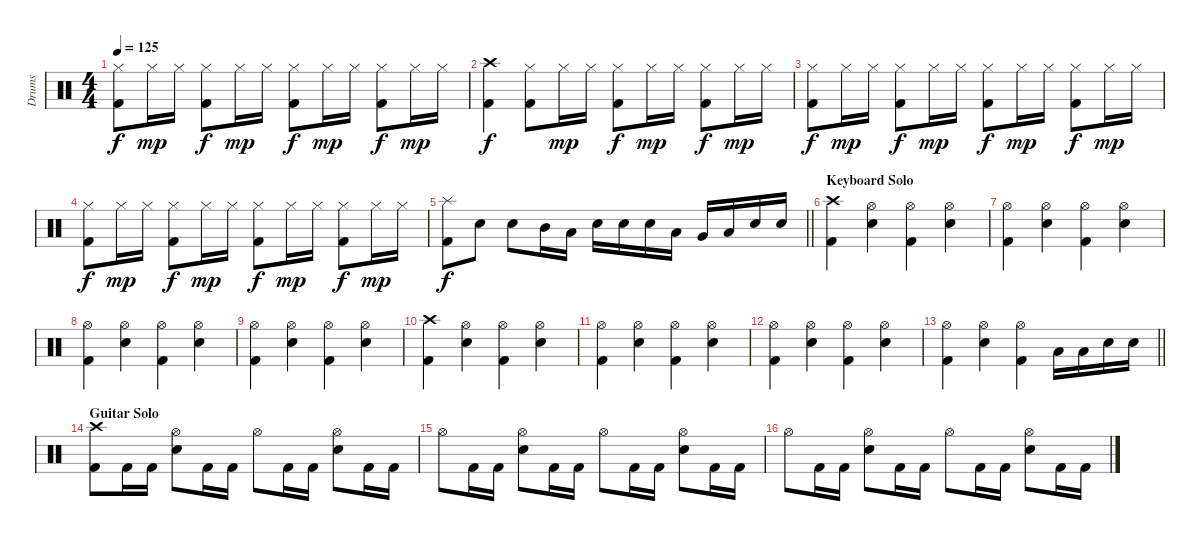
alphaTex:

\track ("Drums" "Drums") {instrument percussion}
\staff {score}
\articulation defaults
\ts (4 4)
\tempo 125
\clef neutral
\ks c
("Kick (hit) 2" "Hi-Hat (closed)").8{dy f} "Hi-Hat (closed)".16{dy mp} "Hi-Hat (closed)".16 ("Kick (hit) 2" "Hi-Hat (closed)").8{dy f} "Hi-Hat (closed)".16{dy mp} "Hi-Hat (closed)".16 ("Kick (hit) 2" "Hi-Hat (closed)").8{dy f} "Hi-Hat (closed)".16{dy mp} "Hi-Hat (closed)".16 ("Kick (hit) 2" "Hi-Hat (closed)").8{dy f} "Hi-Hat (closed)".16{dy mp} "Hi-Hat (closed)".16 |
("Kick (hit) 2" "Crash high (hit)").4{dy f} ("Kick (hit) 2" "Hi-Hat (closed)").8 "Hi-Hat (closed)".16{dy mp} "Hi-Hat (closed)".16 ("Kick (hit) 2" "Hi-Hat (closed)").8{dy f} "Hi-Hat (closed)".16{dy mp} "Hi-Hat (closed)".16 ("Kick (hit) 2" "Hi-Hat (closed)").8{dy f} "Hi-Hat (closed)".16{dy mp} "Hi-Hat (closed)".16 |
("Kick (hit) 2" "Hi-Hat (closed)").8{dy f} "Hi-Hat (closed)".16{dy mp} "Hi-Hat (closed)".16 ("Kick (hit) 2" "Hi-Hat (closed)").8{dy f} "Hi-Hat (closed)".16{dy mp} "Hi-Hat (closed)".16 ("Kick (hit) 2" "Hi-Hat (closed)").8{dy f} "Hi-Hat (closed)".16{dy mp} "Hi-Hat (closed)".16 ("Kick (hit) 2" "Hi-Hat (closed)").8{dy f} "Hi-Hat (closed)".16{dy mp} "Hi-Hat (closed)".16 |
("Kick (hit) 2" "Hi-Hat (closed)").8{dy f} "Hi-Hat (closed)".16{dy mp} "Hi-Hat (closed)".16 ("Kick (hit) 2" "Hi-Hat (closed)").8{dy f} "Hi-Hat (closed)".16{dy mp} "Hi-Hat (closed)".16 ("Kick (hit) 2" "Hi-Hat (closed)").8{dy f} "Hi-Hat (closed)".16{dy mp} "Hi-Hat (closed)".16 ("Kick (hit) 2" "Hi-Hat (closed)").8{dy f} "Hi-Hat (closed)".16{dy mp} "Hi-Hat (closed)".16 |
\barLineRight lightlight
("Kick (hit) 2" "Splash (hit)").8{dy f} "Electric Snare (hit)".8 "Electric Snare (hit)".8 "Mid Tom (hit)".16 "Low Tom (hit)".16 "Electric Snare (hit)".16 "Electric Snare (hit)".16 "Electric Snare (hit)".16 "Low Tom (hit)".16 "Very Low Tom (hit)".16 "Low Floor Tom (hit)".16 "Electric Snare (hit)".16 "Electric Snare (hit)".16 |
\section ("" "Keyboard Solo")
("Kick (hit) 2" "Crash high (hit)").4 ("Hi-Hat (open)" "Electric Snare (hit)").4 ("Kick (hit) 2" "Hi-Hat (open)").4 ("Hi-Hat (open)" "Electric Snare (hit)").4 |
("Kick (hit) 2" "Hi-Hat (open)").4 ("Hi-Hat (open)" "Electric Snare (hit)").4 ("Kick (hit) 2" "Hi-Hat (open)").4 ("Hi-Hat (open)" "Electric Snare (hit)").4 |
("Kick (hit) 2" "Hi-Hat (open)").4 ("Hi-Hat (open)" "Electric Snare (hit)").4 ("Kick (hit) 2" "Hi-Hat (open)").4 ("Hi-Hat (open)" "Electric Snare (hit)").4 |
("Kick (hit) 2" "Hi-Hat (open)").4 ("Hi-Hat (open)" "Electric Snare (hit)").4 ("Kick (hit) 2" "Hi-Hat (open)").4 ("Hi-Hat (open)" "Electric Snare (hit)").4 |
("Kick (hit) 2" "Crash high (hit)").4 ("Hi-Hat (open)" "Electric Snare (hit)").4 ("Kick (hit) 2" "Hi-Hat (open)").4 ("Hi-Hat (open)" "Electric Snare (hit)").4 |
("Kick (hit) 2" "Hi-Hat (open)").4 ("Hi-Hat (open)" "Electric Snare (hit)").4 ("Kick (hit) 2" "Hi-Hat (open)").4 ("Hi-Hat (open)" "Electric Snare (hit)").4 |
("Kick (hit) 2" "Hi-Hat (open)").4 ("Hi-Hat (open)" "Electric Snare (hit)").4 ("Kick (hit) 2" "Hi-Hat (open)").4 ("Hi-Hat (open)" "Electric Snare (hit)").4 |
\barLineRight lightlight
("Kick (hit) 2" "Hi-Hat (open)").4 ("Hi-Hat (open)" "Electric Snare (hit)").4 ("Kick (hit) 2" "Hi-Hat (open)").4 "Low Tom (hit)".16 "Low Tom (hit)".16 "Electric Snare (hit)".16 "Electric Snare (hit)".16 |
\section ("" "Guitar Solo")
("Kick (hit) 2" "Crash high (hit)").8 "Kick (hit) 2".16 "Kick (hit) 2".16 ("Hi-Hat (open)" "Electric Snare (hit)").8 "Kick (hit) 2".16 "Kick (hit) 2".16 "Hi-Hat (open)".8 "Kick (hit) 2".16 "Kick (hit) 2".16 ("Hi-Hat (open)" "Electric Snare (hit)").8 "Kick (hit) 2".16 "Kick (hit) 2".16 |
"Hi-Hat (open)".8 "Kick (hit) 2".16 "Kick (hit) 2".16 ("Hi-Hat (open)" "Electric Snare (hit)").8 "Kick (hit) 2".16 "Kick (hit) 2".16 "Hi-Hat (open)".8 "Kick (hit) 2".16 "Kick (hit) 2".16 ("Hi-Hat (open)" "Electric Snare (hit)").8 "Kick (hit) 2".16 "Kick (hit) 2".16 |
"Hi-Hat (open)".8 "Kick (hit) 2".16 "Kick (hit) 2".16 ("Hi-Hat (open)" "Electric Snare (hit)").8 "Kick (hit) 2".16 "Kick (hit) 2".16 "Hi-Hat (open)".8 "Kick (hit) 2".16 "Kick (hit) 2".16 ("Hi-Hat (open)" "Electric Snare (hit)").8 "Kick (hit) 2".16 "Kick (hit) 2".16
